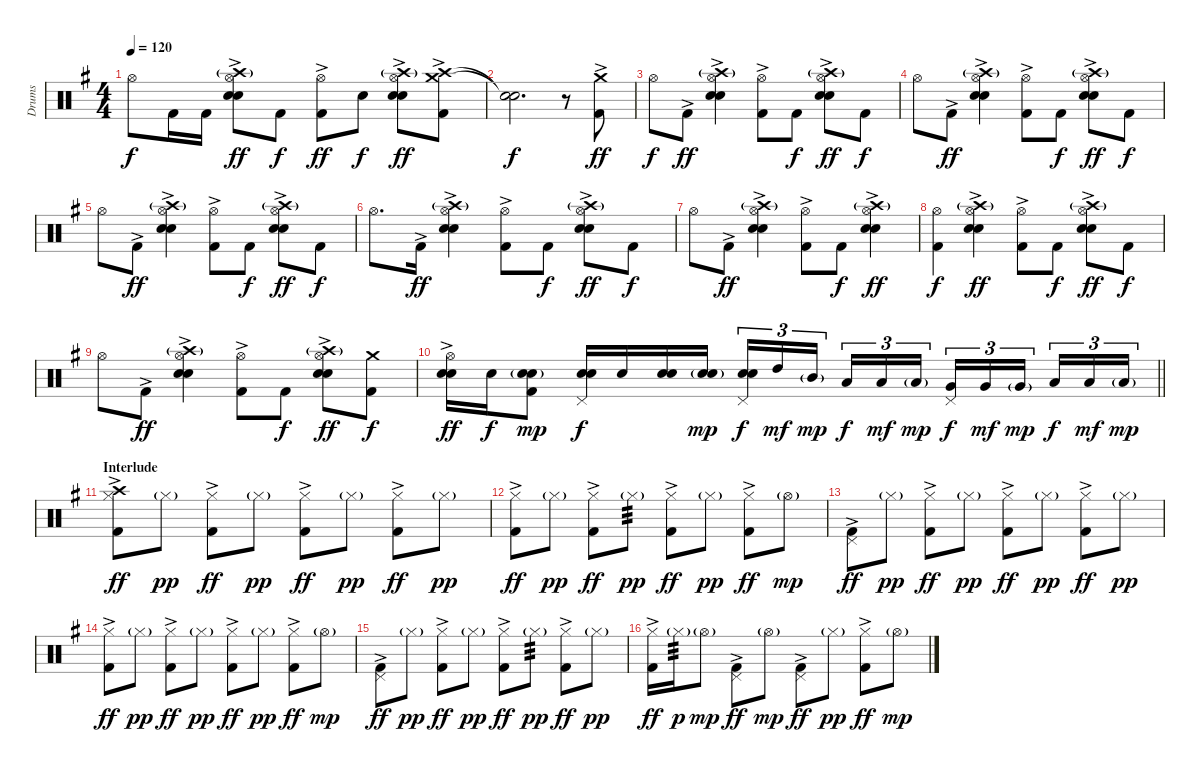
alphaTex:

\track ("Drums" "Drums") {instrument percussion}
\staff {score}
\articulation defaults
\ts (4 4)
\tempo 120
\clef neutral
\ks g "Hi-Hat (open)".8{dy f} "Kick (hit) 2".16 "Kick (hit) 2".16
("Hi-Hat (open)" "Crash high (hit)"{g} "Electric Snare (hit)"{ac} "Snare (hit) 2").8{dy ff} "Kick (hit) 2".8{dy f} ("Hi-Hat (open)" "Kick (hit) 2"{ac}).8{dy ff} "Snare (hit) 2".8{dy f} ("Hi-Hat (open)" "Crash high (hit)"{g} "Electric Snare (hit)"{ac} "Snare (hit) 2").8{dy ff} ("Crash high (hit)" "Crash medium (hit)" "Kick (hit) 2"{ac}).8 |
("Snare (hit)"{t} "Snare (hit)"{t}).2{d dy f} r.8 ("Crash medium (hit)" "Kick (hit) 2"{ac}).8{dy ff} |
"Hi-Hat (open)".8{dy f} "Kick (hit) 2"{ac}.8{dy ff} ("Hi-Hat (open)" "Crash high (hit)"{g} "Electric Snare (hit)"{ac} "Snare (hit) 2").4 ("Hi-Hat (open)" "Kick (hit) 2"{ac}).8 "Kick (hit) 2".8{dy f} ("Hi-Hat (open)" "Crash high (hit)"{g} "Electric Snare (hit)"{ac} "Snare (hit) 2").8{dy ff} "Kick (hit) 2".8{dy f} |
"Hi-Hat (open)".8 "Kick (hit) 2"{ac}.8{dy ff} ("Hi-Hat (open)" "Crash high (hit)"{g} "Electric Snare (hit)"{ac} "Snare (hit) 2").4 ("Hi-Hat (open)" "Kick (hit) 2"{ac}).8 "Kick (hit) 2".8{dy f} ("Hi-Hat (open)" "Crash high (hit)"{g} "Electric Snare (hit)"{ac} "Snare (hit) 2").8{dy ff} "Kick (hit) 2".8{dy f} |
"Hi-Hat (open)".8 "Kick (hit) 2"{ac}.8{dy ff} ("Hi-Hat (open)" "Crash high (hit)"{g} "Electric Snare (hit)"{ac} "Snare (hit) 2").4 ("Hi-Hat (open)" "Kick (hit) 2"{ac}).8 "Kick (hit) 2".8{dy f} ("Hi-Hat (open)" "Crash high (hit)"{g} "Electric Snare (hit)"{ac} "Snare (hit) 2").8{dy ff} "Kick (hit) 2".8{dy f} |
"Hi-Hat (open)".8{d} "Kick (hit) 2"{ac}.16{dy ff} ("Hi-Hat (open)" "Crash high (hit)"{g} "Electric Snare (hit)"{ac} "Snare (hit) 2").4 ("Hi-Hat (open)" "Kick (hit) 2"{ac}).8 "Kick (hit) 2".8{dy f} ("Hi-Hat (open)" "Crash high (hit)"{g} "Electric Snare (hit)"{ac} "Snare (hit) 2").8{dy ff} "Kick (hit) 2".8{dy f} |
"Hi-Hat (open)".8 "Kick (hit) 2"{ac}.8{dy ff} ("Hi-Hat (open)" "Crash high (hit)"{g} "Electric Snare (hit)"{ac} "Snare (hit) 2").4 ("Hi-Hat (open)" "Kick (hit) 2"{ac}).8 "Kick (hit) 2".8{dy f} ("Hi-Hat (open)" "Crash high (hit)"{g} "Electric Snare (hit)"{ac} "Snare (hit) 2").4{dy ff} |
("Hi-Hat (open)" "Kick (hit) 2").4{dy f} ("Hi-Hat (open)" "Crash high (hit)"{g} "Electric Snare (hit)"{ac} "Snare (hit) 2").4{dy ff} ("Hi-Hat (open)" "Kick (hit) 2"{ac}).8 "Kick (hit) 2".8{dy f} ("Hi-Hat (open)" "Crash high (hit)"{g} "Electric Snare (hit)"{ac} "Snare (hit) 2").8{dy ff} "Kick (hit) 2".8{dy f} |
"Hi-Hat (open)".8 "Kick (hit) 2"{ac}.8{dy ff} ("Hi-Hat (open)" "Crash high (hit)"{g} "Electric Snare (hit)"{ac} "Snare (hit) 2").4 ("Hi-Hat (open)" "Kick (hit) 2"{ac}).8 "Kick (hit) 2".8{dy f} ("Hi-Hat (open)" "Crash high (hit)"{g} "Electric Snare (hit)"{ac} "Snare (hit) 2").8{dy ff} ("Crash medium (hit)" "Kick (hit) 2").8{dy f} |
\barLineRight lightlight
("Hi-Hat (open)" "Electric Snare (hit)"{ac} "Snare (hit) 2").16{dy ff} "Snare (hit) 2".16{dy f} ("Electric Snare (hit)"{g} "Snare (hit) 2" "Kick (hit) 2").8{dy mp} ("Pedal Hi-Hat (hit)" "Electric Snare (hit)" "Snare (hit) 2").16{dy f} "Snare (hit) 2".16 ("Electric Snare (hit)" "Snare (hit) 2").16 ("Electric Snare (hit)"{g} "Snare (hit) 2").16{dy mp} ("Pedal Hi-Hat (hit)" "Electric Snare (hit)" "Snare (hit) 2").16{tu (3 2) dy f} "High Tom (hit)".16{tu (3 2) dy mf} "Mid Tom (hit)"{g}.16{tu (3 2) dy mp beam splitsecondary} "Low Tom (hit)".16{tu (3 2) dy f} "Low Tom (hit)".16{tu (3 2) dy mf} "Low Tom (hit)"{g}.16{tu (3 2) dy mp} ("Pedal Hi-Hat (hit)" "Very Low Tom (hit)").16{tu (3 2) dy f} "Very Low Tom (hit)".16{tu (3 2) dy mf} "Very Low Tom (hit)"{g}.16{tu (3 2) dy mp beam splitsecondary} "Low Floor Tom (hit)".16{tu (3 2) dy f} "Low Floor Tom (hit)".16{tu (3 2) dy mf} "Low Floor Tom (hit)"{g}.16{tu (3 2) dy mp} |
\section ("" "Interlude")
("Hi-Hat (closed)" "Crash high (hit)" "Kick (hit) 2"{ac}).8{dy ff} "Hi-Hat (closed)"{g}.8{dy pp} ("Hi-Hat (closed)" "Kick (hit) 2"{ac}).8{dy ff} "Hi-Hat (closed)"{g}.8{dy pp} ("Hi-Hat (closed)" "Kick (hit) 2"{ac}).8{dy ff} "Hi-Hat (closed)"{g}.8{dy pp} ("Hi-Hat (closed)" "Kick (hit) 2"{ac}).8{dy ff} "Hi-Hat (closed)"{g}.8{dy pp} |
("Hi-Hat (closed)" "Kick (hit) 2"{ac}).8{dy ff} "Hi-Hat (closed)"{g}.8{dy pp} ("Hi-Hat (closed)" "Kick (hit) 2"{ac}).8{dy ff} "Hi-Hat (closed)"{g}.8{tp 3 dy pp} ("Hi-Hat (closed)" "Kick (hit) 2"{ac}).8{dy ff} "Hi-Hat (closed)"{g}.8{dy pp} ("Hi-Hat (closed)" "Kick (hit) 2"{ac}).8{dy ff} "Hi-Hat (open)"{g}.8{dy mp} |
("Pedal Hi-Hat (hit)" "Kick (hit) 2"{ac}).8{dy ff} "Hi-Hat (closed)"{g}.8{dy pp} ("Hi-Hat (closed)" "Kick (hit) 2"{ac}).8{dy ff} "Hi-Hat (closed)"{g}.8{dy pp} ("Hi-Hat (closed)" "Kick (hit) 2"{ac}).8{dy ff} "Hi-Hat (closed)"{g}.8{dy pp} ("Hi-Hat (closed)" "Kick (hit) 2"{ac}).8{dy ff} "Hi-Hat (closed)"{g}.8{dy pp} |
("Hi-Hat (closed)" "Kick (hit) 2"{ac}).8{dy ff} "Hi-Hat (closed)"{g}.8{dy pp} ("Hi-Hat (closed)" "Kick (hit) 2"{ac}).8{dy ff} "Hi-Hat (closed)"{g}.8{dy pp} ("Hi-Hat (closed)" "Kick (hit) 2"{ac}).8{dy ff} "Hi-Hat (closed)"{g}.8{dy pp} ("Hi-Hat (closed)" "Kick (hit) 2"{ac}).8{dy ff} "Hi-Hat (open)"{g}.8{dy mp} |
("Pedal Hi-Hat (hit)" "Kick (hit) 2"{ac}).8{dy ff} "Hi-Hat (closed)"{g}.8{dy pp} ("Hi-Hat (closed)" "Kick (hit) 2"{ac}).8{dy ff} "Hi-Hat (closed)"{g}.8{dy pp} ("Hi-Hat (closed)" "Kick (hit) 2"{ac}).8{dy ff} "Hi-Hat (closed)"{g}.8{tp 3 dy pp} ("Hi-Hat (closed)" "Kick (hit) 2"{ac}).8{dy ff} "Hi-Hat (closed)"{g}.8{dy pp} |
("Hi-Hat (closed)" "Kick (hit) 2"{ac}).16{dy ff} "Hi-Hat (closed)"{g}.16{tp 3 dy p} "Hi-Hat (open)"{g}.8{dy mp} ("Pedal Hi-Hat (hit)" "Kick (hit) 2"{ac}).8{dy ff} "Hi-Hat (open)"{g}.8{dy mp} ("Pedal Hi-Hat (hit)" "Kick (hit) 2"{ac}).8{dy ff} "Hi-Hat (closed)"{g}.8{dy pp} ("Hi-Hat (closed)" "Kick (hit) 2"{ac}).8{dy ff} "Hi-Hat (open)"{g}.8{dy mp}
